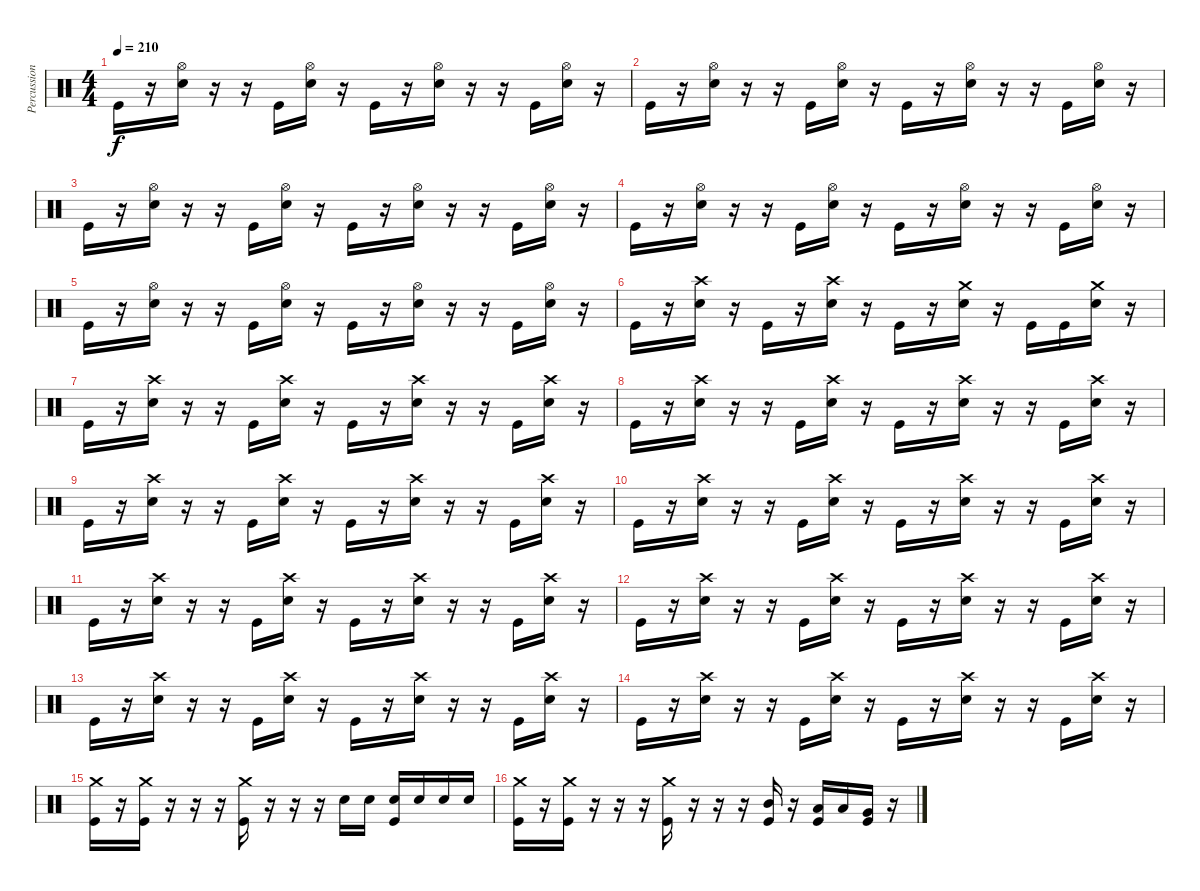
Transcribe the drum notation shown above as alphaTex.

\track ("Percussion" "Percussion") {instrument percussion}
\staff {score}
\articulation defaults
\ts (4 4)
\tempo 210
\clef neutral
\ks c "Kick (hit)".16{dy f}
r.16 ("Hi-Hat (open)" "Electric Snare (hit)").16 r.16 r.16 "Kick (hit)".16 ("Hi-Hat (open)" "Electric Snare (hit)").16 r.16 "Kick (hit)".16 r.16 ("Hi-Hat (open)" "Electric Snare (hit)").16 r.16 r.16 "Kick (hit)".16 ("Hi-Hat (open)" "Electric Snare (hit)").16 r.16 |
"Kick (hit)".16 r.16 ("Hi-Hat (open)" "Electric Snare (hit)").16 r.16 r.16 "Kick (hit)".16 ("Hi-Hat (open)" "Electric Snare (hit)").16 r.16 "Kick (hit)".16 r.16 ("Hi-Hat (open)" "Electric Snare (hit)").16 r.16 r.16 "Kick (hit)".16 ("Hi-Hat (open)" "Electric Snare (hit)").16 r.16 |
"Kick (hit)".16 r.16 ("Hi-Hat (open)" "Electric Snare (hit)").16 r.16 r.16 "Kick (hit)".16 ("Hi-Hat (open)" "Electric Snare (hit)").16 r.16 "Kick (hit)".16 r.16 ("Hi-Hat (open)" "Electric Snare (hit)").16 r.16 r.16 "Kick (hit)".16 ("Hi-Hat (open)" "Electric Snare (hit)").16 r.16 |
"Kick (hit)".16 r.16 ("Hi-Hat (open)" "Electric Snare (hit)").16 r.16 r.16 "Kick (hit)".16 ("Hi-Hat (open)" "Electric Snare (hit)").16 r.16 "Kick (hit)".16 r.16 ("Hi-Hat (open)" "Electric Snare (hit)").16 r.16 r.16 "Kick (hit)".16 ("Hi-Hat (open)" "Electric Snare (hit)").16 r.16 |
"Kick (hit)".16 r.16 ("Hi-Hat (open)" "Electric Snare (hit)").16 r.16 r.16 "Kick (hit)".16 ("Hi-Hat (open)" "Electric Snare (hit)").16 r.16 "Kick (hit)".16 r.16 ("Hi-Hat (open)" "Electric Snare (hit)").16 r.16 r.16 "Kick (hit)".16 ("Hi-Hat (open)" "Electric Snare (hit)").16 r.16 |
"Kick (hit)".16 r.16 ("Crash high (hit)" "Electric Snare (hit)").16 r.16 "Kick (hit)".16 r.16 ("Crash high (hit)" "Electric Snare (hit)").16 r.16 "Kick (hit)".16 r.16 ("Crash medium (hit)" "Electric Snare (hit)").16 r.16 "Kick (hit)".16 "Kick (hit)".16 ("Crash medium (hit)" "Electric Snare (hit)").16 r.16 |
"Kick (hit)".16 r.16 ("Crash high (hit)" "Electric Snare (hit)").16 r.16 r.16 "Kick (hit)".16 ("Crash high (hit)" "Electric Snare (hit)").16 r.16 "Kick (hit)".16 r.16 ("Crash high (hit)" "Electric Snare (hit)").16 r.16 r.16 "Kick (hit)".16 ("Crash high (hit)" "Electric Snare (hit)").16 r.16 |
"Kick (hit)".16 r.16 ("Crash high (hit)" "Electric Snare (hit)").16 r.16 r.16 "Kick (hit)".16 ("Crash high (hit)" "Electric Snare (hit)").16 r.16 "Kick (hit)".16 r.16 ("Crash high (hit)" "Electric Snare (hit)").16 r.16 r.16 "Kick (hit)".16 ("Crash high (hit)" "Electric Snare (hit)").16 r.16 |
"Kick (hit)".16 r.16 ("Crash high (hit)" "Electric Snare (hit)").16 r.16 r.16 "Kick (hit)".16 ("Crash high (hit)" "Electric Snare (hit)").16 r.16 "Kick (hit)".16 r.16 ("Crash high (hit)" "Electric Snare (hit)").16 r.16 r.16 "Kick (hit)".16 ("Crash high (hit)" "Electric Snare (hit)").16 r.16 |
"Kick (hit)".16 r.16 ("Crash high (hit)" "Electric Snare (hit)").16 r.16 r.16 "Kick (hit)".16 ("Crash high (hit)" "Electric Snare (hit)").16 r.16 "Kick (hit)".16 r.16 ("Crash high (hit)" "Electric Snare (hit)").16 r.16 r.16 "Kick (hit)".16 ("Crash high (hit)" "Electric Snare (hit)").16 r.16 |
"Kick (hit)".16 r.16 ("Crash high (hit)" "Electric Snare (hit)").16 r.16 r.16 "Kick (hit)".16 ("Crash high (hit)" "Electric Snare (hit)").16 r.16 "Kick (hit)".16 r.16 ("Crash high (hit)" "Electric Snare (hit)").16 r.16 r.16 "Kick (hit)".16 ("Crash high (hit)" "Electric Snare (hit)").16 r.16 |
"Kick (hit)".16 r.16 ("Crash high (hit)" "Electric Snare (hit)").16 r.16 r.16 "Kick (hit)".16 ("Crash high (hit)" "Electric Snare (hit)").16 r.16 "Kick (hit)".16 r.16 ("Crash high (hit)" "Electric Snare (hit)").16 r.16 r.16 "Kick (hit)".16 ("Crash high (hit)" "Electric Snare (hit)").16 r.16 |
"Kick (hit)".16 r.16 ("Crash high (hit)" "Electric Snare (hit)").16 r.16 r.16 "Kick (hit)".16 ("Crash high (hit)" "Electric Snare (hit)").16 r.16 "Kick (hit)".16 r.16 ("Crash high (hit)" "Electric Snare (hit)").16 r.16 r.16 "Kick (hit)".16 ("Crash high (hit)" "Electric Snare (hit)").16 r.16 |
"Kick (hit)".16 r.16 ("Crash high (hit)" "Electric Snare (hit)").16 r.16 r.16 "Kick (hit)".16 ("Crash high (hit)" "Electric Snare (hit)").16 r.16 "Kick (hit)".16 r.16 ("Crash high (hit)" "Electric Snare (hit)").16 r.16 r.16 "Kick (hit)".16 ("Crash high (hit)" "Electric Snare (hit)").16 r.16 |
("Crash medium (hit)" "Kick (hit)").16 r.16 ("Crash medium (hit)" "Kick (hit)").16 r.16 r.16 r.16 ("Crash medium (hit)" "Kick (hit)").16 r.16 r.16 r.16 "Electric Snare (hit)".16 "Electric Snare (hit)".16 ("Kick (hit)" "Electric Snare (hit)").16 "Electric Snare (hit)".16 "Electric Snare (hit)".16 "Electric Snare (hit)".16 |
("Crash medium (hit)" "Kick (hit)").16 r.16 ("Crash medium (hit)" "Kick (hit)").16 r.16 r.16 r.16 ("Crash medium (hit)" "Kick (hit)").16 r.16 r.16 r.16 ("Kick (hit)" "Mid Tom (hit)").16 r.16 ("Kick (hit)" "Low Tom (hit)").16 "Low Tom (hit)".16 ("Kick (hit)" "Very Low Tom (hit)").16 r.16
